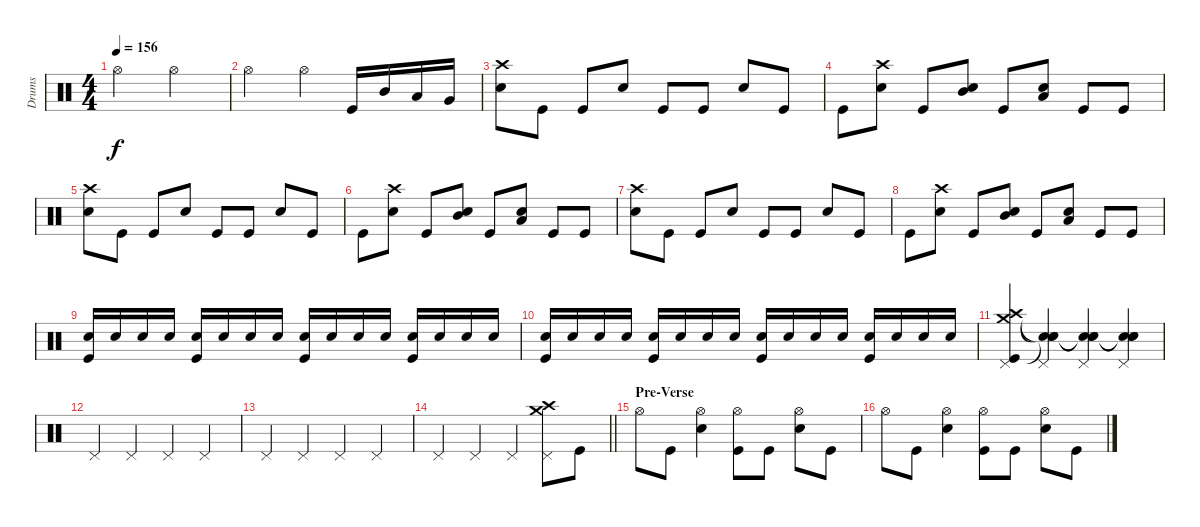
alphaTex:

\track ("Drums" "Drums") {instrument percussion}
\staff {score}
\articulation defaults
\ts (4 4)
\tempo 156
\clef neutral
\ks c "Hi-Hat (open)".2{dy f} "Hi-Hat (open)".2
|
"Hi-Hat (open)".2 "Hi-Hat (open)".4 "Kick (hit)".16 "Mid Tom (hit)".16 "Low Tom (hit)".16 "Very Low Tom (hit)".16 |
("Crash high (hit)" "Snare (hit) 2").8 "Kick (hit)".8 "Kick (hit)".8 "Snare (hit) 2".8 "Kick (hit)".8 "Kick (hit)".8 "Snare (hit) 2".8 "Kick (hit)".8 |
"Kick (hit)".8 ("Crash high (hit)" "Snare (hit) 2").8 "Kick (hit)".8 ("Mid Tom (hit)" "Snare (hit) 2").8 "Kick (hit)".8 ("Low Tom (hit)" "Snare (hit) 2").8 "Kick (hit)".8 "Kick (hit)".8 |
("Crash high (hit)" "Snare (hit) 2").8 "Kick (hit)".8 "Kick (hit)".8 "Snare (hit) 2".8 "Kick (hit)".8 "Kick (hit)".8 "Snare (hit) 2".8 "Kick (hit)".8 |
"Kick (hit)".8 ("Crash high (hit)" "Snare (hit) 2").8 "Kick (hit)".8 ("Mid Tom (hit)" "Snare (hit) 2").8 "Kick (hit)".8 ("Low Tom (hit)" "Snare (hit) 2").8 "Kick (hit)".8 "Kick (hit)".8 |
("Crash high (hit)" "Snare (hit) 2").8 "Kick (hit)".8 "Kick (hit)".8 "Snare (hit) 2".8 "Kick (hit)".8 "Kick (hit)".8 "Snare (hit) 2".8 "Kick (hit)".8 |
"Kick (hit)".8 ("Crash high (hit)" "Snare (hit) 2").8 "Kick (hit)".8 ("Mid Tom (hit)" "Snare (hit) 2").8 "Kick (hit)".8 ("Low Tom (hit)" "Snare (hit) 2").8 "Kick (hit)".8 "Kick (hit)".8 |
("Snare (hit) 2" "Kick (hit)").16{volume 10} "Snare (hit) 2".16 "Snare (hit) 2".16 "Snare (hit) 2".16 ("Snare (hit) 2" "Kick (hit)").16 "Snare (hit) 2".16 "Snare (hit) 2".16 "Snare (hit) 2".16 ("Snare (hit) 2" "Kick (hit)").16{volume 13} "Snare (hit) 2".16 "Snare (hit) 2".16 "Snare (hit) 2".16 ("Snare (hit) 2" "Kick (hit)").16 "Snare (hit) 2".16 "Snare (hit) 2".16 "Snare (hit) 2".16 |
("Snare (hit) 2" "Kick (hit)").16{volume 16} "Snare (hit) 2".16 "Snare (hit) 2".16 "Snare (hit) 2".16 ("Snare (hit) 2" "Kick (hit)").16 "Snare (hit) 2".16 "Snare (hit) 2".16 "Snare (hit) 2".16 ("Snare (hit) 2" "Kick (hit)").16 "Snare (hit) 2".16 "Snare (hit) 2".16 "Snare (hit) 2".16 ("Snare (hit) 2" "Kick (hit)").16 "Snare (hit) 2".16 "Snare (hit) 2".16 "Snare (hit) 2".16 |
("Crash medium (hit)" "Crash high (hit)" "Pedal Hi-Hat (hit)" "Kick (hit)").4 ("Snare (hit)"{t} "Snare (hit)"{t} "Pedal Hi-Hat (hit)" "Snare (hit)"{t}).4 ("Snare (hit)"{t} "Snare (hit)"{t} "Pedal Hi-Hat (hit)" "Snare (hit)"{t}).4 ("Snare (hit)"{t} "Snare (hit)"{t} "Pedal Hi-Hat (hit)" "Snare (hit)"{t}).4 |
"Pedal Hi-Hat (hit)".4 "Pedal Hi-Hat (hit)".4 "Pedal Hi-Hat (hit)".4 "Pedal Hi-Hat (hit)".4 |
"Pedal Hi-Hat (hit)".4 "Pedal Hi-Hat (hit)".4 "Pedal Hi-Hat (hit)".4 "Pedal Hi-Hat (hit)".4 |
\barLineRight lightlight "Pedal Hi-Hat (hit)".4 "Pedal Hi-Hat (hit)".4 "Pedal Hi-Hat (hit)".4
("Crash high (hit)" "Crash medium (hit)" "Pedal Hi-Hat (hit)").8 "Kick (hit)".8 |
\section ("" "Pre-Verse")
"Hi-Hat (open)".8 "Kick (hit)".8 ("Hi-Hat (open)" "Snare (hit) 2").4 ("Hi-Hat (open)" "Kick (hit)").8 "Kick (hit)".8 ("Hi-Hat (open)" "Snare (hit) 2").8 "Kick (hit)".8 |
"Hi-Hat (open)".8 "Kick (hit)".8 ("Hi-Hat (open)" "Snare (hit) 2").4 ("Hi-Hat (open)" "Kick (hit)").8 "Kick (hit)".8 ("Hi-Hat (open)" "Snare (hit) 2").8 "Kick (hit)".8
